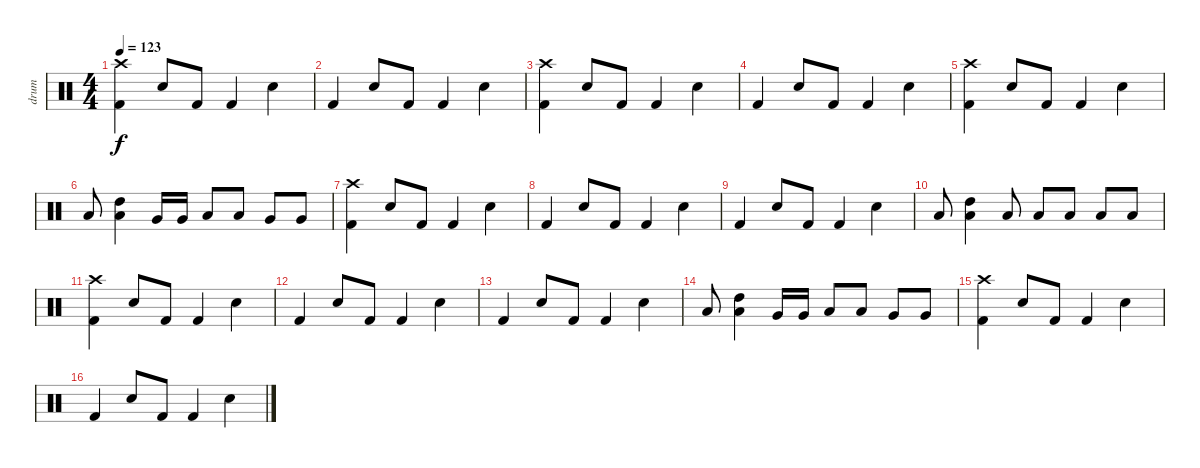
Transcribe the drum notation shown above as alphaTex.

\track ("drum" "drum") {instrument percussion}
\staff {score}
\articulation defaults
\ts (4 4)
\tempo 123
\clef neutral
\ks c
("Kick (hit) 2" "Crash high (hit)").4{dy f} "Snare (hit) 2".8 "Kick (hit) 2".8 "Kick (hit) 2".4 "Snare (hit) 2".4 |
"Kick (hit) 2".4 "Snare (hit) 2".8 "Kick (hit) 2".8 "Kick (hit) 2".4 "Snare (hit) 2".4 |
("Kick (hit) 2" "Crash high (hit)").4 "Snare (hit) 2".8 "Kick (hit) 2".8 "Kick (hit) 2".4 "Snare (hit) 2".4 |
"Kick (hit) 2".4 "Snare (hit) 2".8 "Kick (hit) 2".8 "Kick (hit) 2".4 "Snare (hit) 2".4 |
("Kick (hit) 2" "Crash high (hit)").4 "Snare (hit) 2".8 "Kick (hit) 2".8 "Kick (hit) 2".4 "Snare (hit) 2".4 |
"Low Tom (hit)".8 ("Low Tom (hit)" "High Tom (hit)").4 "Very Low Tom (hit)".16 "Very Low Tom (hit)".16 "Low Tom (hit)".8 "Low Tom (hit)".8 "Very Low Tom (hit)".8 "Very Low Tom (hit)".8 |
("Kick (hit) 2" "Crash high (hit)").4 "Snare (hit) 2".8 "Kick (hit) 2".8 "Kick (hit) 2".4 "Snare (hit) 2".4 |
"Kick (hit) 2".4 "Snare (hit) 2".8 "Kick (hit) 2".8 "Kick (hit) 2".4 "Snare (hit) 2".4 |
"Kick (hit) 2".4 "Snare (hit) 2".8 "Kick (hit) 2".8 "Kick (hit) 2".4 "Snare (hit) 2".4 |
"Low Tom (hit)".8 ("Low Tom (hit)" "High Tom (hit)").4 "Low Tom (hit)".8 "Low Tom (hit)".8 "Low Tom (hit)".8 "Low Tom (hit)".8 "Low Tom (hit)".8 |
("Kick (hit) 2" "Crash high (hit)").4 "Snare (hit) 2".8 "Kick (hit) 2".8 "Kick (hit) 2".4 "Snare (hit) 2".4 |
"Kick (hit) 2".4 "Snare (hit) 2".8 "Kick (hit) 2".8 "Kick (hit) 2".4 "Snare (hit) 2".4 |
"Kick (hit) 2".4 "Snare (hit) 2".8 "Kick (hit) 2".8 "Kick (hit) 2".4 "Snare (hit) 2".4 |
"Low Tom (hit)".8 ("Low Tom (hit)" "High Tom (hit)").4 "Very Low Tom (hit)".16 "Very Low Tom (hit)".16 "Low Tom (hit)".8 "Low Tom (hit)".8 "Very Low Tom (hit)".8 "Very Low Tom (hit)".8 |
("Kick (hit) 2" "Crash high (hit)").4 "Snare (hit) 2".8 "Kick (hit) 2".8 "Kick (hit) 2".4 "Snare (hit) 2".4 |
"Kick (hit) 2".4 "Snare (hit) 2".8 "Kick (hit) 2".8 "Kick (hit) 2".4 "Snare (hit) 2".4
